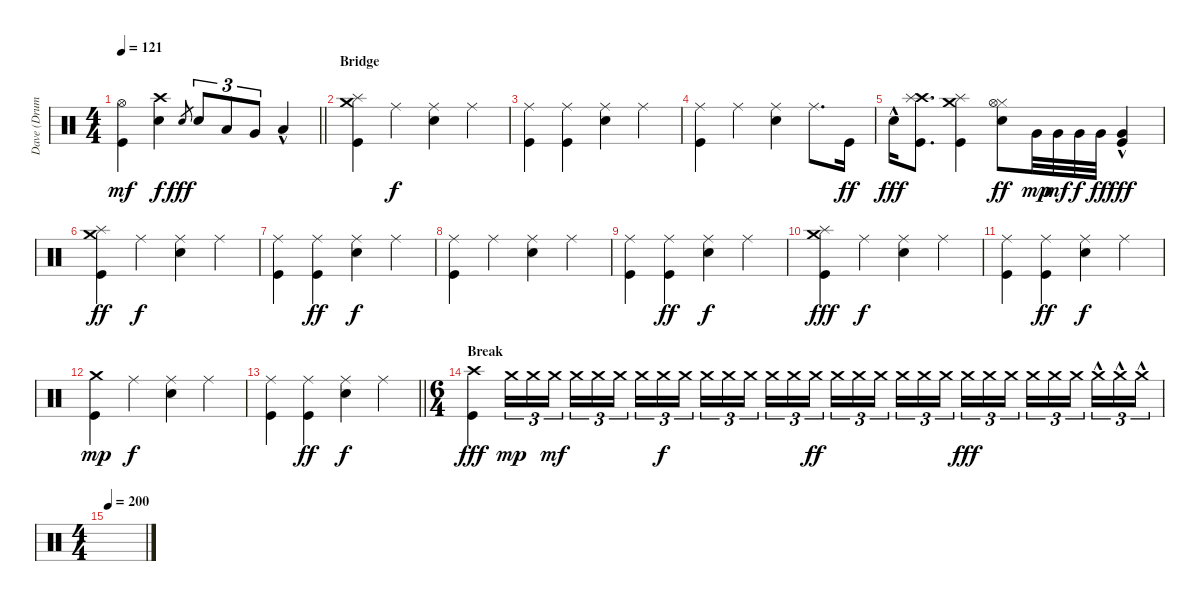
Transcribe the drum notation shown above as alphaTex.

\track ("Dave (Drums)" "Dave (Drum") {instrument percussion}
\staff {score}
\articulation defaults
\ts (4 4)
\tempo 121
\clef neutral
\barLineRight lightlight
\ks c
("Hi-Hat (open)" "Kick (hit)").4{dy mf} ("Crash high (hit)" "Snare (hit) 2").4{dy f} "Snare (hit) 2".8{gr dy fff} "Snare (hit) 2".8{tu (3 2)} "Low Tom (hit)".8{tu (3 2)} "Very Low Tom (hit)".8{tu (3 2)} "Low Floor Tom (hit)"{hac}.4 |
\section ("" "Bridge")
("Crash medium (hit)" "Splash (hit)" "Kick (hit)").4 "Ride (middle)".4{dy f} ("Ride (middle)" "Snare (hit) 2").4 "Ride (middle)".4 |
("Ride (middle)" "Kick (hit)").4 ("Ride (middle)" "Kick (hit)").4 ("Ride (middle)" "Snare (hit) 2").4 "Ride (middle)".4 |
("Ride (middle)" "Kick (hit)").4 "Ride (middle)".4 ("Ride (middle)" "Snare (hit) 2").4 "Ride (middle)".8{d} "Kick (hit)".16{dy ff} |
"Snare (hit) 2"{hac}.16{dy fff} ("Crash high (hit)" "Splash (hit)" "Kick (hit)").8{d} ("Crash medium (hit)" "Splash (hit)" "Kick (hit)").4 ("Hi-Hat (closed)" "Hi-Hat (open)" "Snare (hit) 2").8{dy ff} "Very Low Tom (hit)".32{dy mp} "Very Low Tom (hit)".32{dy mf} "Very Low Tom (hit)".32{dy f} "Very Low Tom (hit)".32{dy ff} ("Very Low Tom (hit)"{hac} "Kick (hit)").4{dy fff} |
("Crash medium (hit)" "Splash (hit)" "Kick (hit)").4{dy ff} "Ride (middle)".4{dy f} ("Ride (middle)" "Snare (hit) 2").4 "Ride (middle)".4 |
("Ride (middle)" "Kick (hit)").4 ("Ride (middle)" "Kick (hit)").4{dy ff} ("Ride (middle)" "Snare (hit) 2").4{dy f} "Ride (middle)".4 |
("Ride (middle)" "Kick (hit)").4 "Ride (middle)".4 ("Ride (middle)" "Snare (hit) 2").4 "Ride (middle)".4 |
("Ride (middle)" "Kick (hit)").4 ("Ride (middle)" "Kick (hit)").4{dy ff} ("Ride (middle)" "Snare (hit) 2").4{dy f} "Ride (middle)".4 |
("Crash medium (hit)" "Splash (hit)" "Kick (hit)").4{dy fff} "Ride (middle)".4{dy f} ("Ride (middle)" "Snare (hit) 2").4 "Ride (middle)".4 |
("Ride (middle)" "Kick (hit)").4 ("Ride (middle)" "Kick (hit)").4{dy ff} ("Ride (middle)" "Snare (hit) 2").4{dy f} "Ride (middle)".4 |
("Crash medium (hit)" "Kick (hit)").4{dy mp} "Ride (middle)".4{dy f} ("Ride (middle)" "Snare (hit) 2").4 "Ride (middle)".4 |
\barLineRight lightlight
("Ride (middle)" "Kick (hit)").4 ("Ride (middle)" "Kick (hit)").4{dy ff} ("Ride (middle)" "Snare (hit) 2").4{dy f} "Ride (middle)".4 |
\ts (6 4)
\section ("" "Break")
("Crash high (hit)" "Kick (hit)").4{dy fff} "Crash medium (hit)".16{tu (3 2) dy mp} "Crash medium (hit)".16{tu (3 2)} "Crash medium (hit)".16{tu (3 2) dy mf beam splitsecondary} "Crash medium (hit)".16{tu (3 2)} "Crash medium (hit)".16{tu (3 2)} "Crash medium (hit)".16{tu (3 2) beam splitsecondary} "Crash medium (hit)".16{tu (3 2)} "Crash medium (hit)".16{tu (3 2) dy f} "Crash medium (hit)".16{tu (3 2) beam splitsecondary} "Crash medium (hit)".16{tu (3 2)} "Crash medium (hit)".16{tu (3 2)} "Crash medium (hit)".16{tu (3 2)} "Crash medium (hit)".16{tu (3 2)} "Crash medium (hit)".16{tu (3 2)} "Crash medium (hit)".16{tu (3 2) dy ff beam splitsecondary} "Crash medium (hit)".16{tu (3 2)} "Crash medium (hit)".16{tu (3 2)} "Crash medium (hit)".16{tu (3 2) beam splitsecondary} "Crash medium (hit)".16{tu (3 2)} "Crash medium (hit)".16{tu (3 2)} "Crash medium (hit)".16{tu (3 2) beam splitsecondary} "Crash medium (hit)".16{tu (3 2) dy fff} "Crash medium (hit)".16{tu (3 2)} "Crash medium (hit)".16{tu (3 2) beam splitsecondary} "Crash medium (hit)".16{tu (3 2)} "Crash medium (hit)".16{tu (3 2)} "Crash medium (hit)".16{tu (3 2) beam splitsecondary} "Crash medium (hit)"{hac}.16{tu (3 2)} "Crash medium (hit)"{hac}.16{tu (3 2)} "Crash medium (hit)"{hac}.16{tu (3 2)} |
\ts (4 4)
\tempo 200
